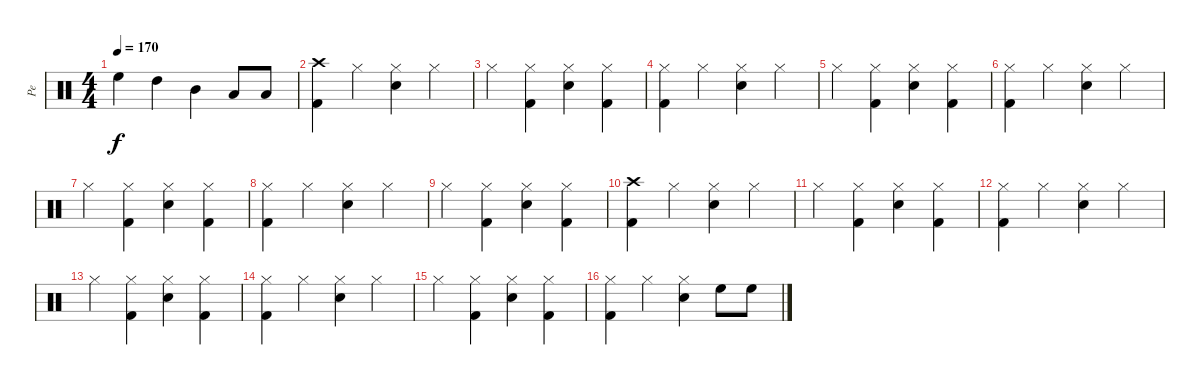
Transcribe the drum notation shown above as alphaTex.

\track ("Pe" "Pe") {instrument percussion}
\staff {score}
\articulation defaults
\ts (4 4)
\tempo 170
\clef neutral
\ks c "High Floor Tom (hit)".4{dy f} "High Tom (hit)".4 "Mid Tom (hit)".4 "Low Tom (hit)".8 "Low Tom (hit)".8
|
("Kick (hit) 2" "Crash high (hit)").4 "Hi-Hat (closed)".4 ("Snare (hit) 2" "Hi-Hat (closed)").4 "Hi-Hat (closed)".4 |
"Hi-Hat (closed)".4 ("Kick (hit) 2" "Hi-Hat (closed)").4 ("Snare (hit) 2" "Hi-Hat (closed)").4 ("Kick (hit) 2" "Hi-Hat (closed)").4 |
("Kick (hit) 2" "Hi-Hat (closed)").4 "Hi-Hat (closed)".4 ("Snare (hit) 2" "Hi-Hat (closed)").4 "Hi-Hat (closed)".4 |
"Hi-Hat (closed)".4 ("Kick (hit) 2" "Hi-Hat (closed)").4 ("Snare (hit) 2" "Hi-Hat (closed)").4 ("Kick (hit) 2" "Hi-Hat (closed)").4 |
("Kick (hit) 2" "Hi-Hat (closed)").4 "Hi-Hat (closed)".4 ("Snare (hit) 2" "Hi-Hat (closed)").4 "Hi-Hat (closed)".4 |
"Hi-Hat (closed)".4 ("Kick (hit) 2" "Hi-Hat (closed)").4 ("Snare (hit) 2" "Hi-Hat (closed)").4 ("Kick (hit) 2" "Hi-Hat (closed)").4 |
("Kick (hit) 2" "Hi-Hat (closed)").4 "Hi-Hat (closed)".4 ("Snare (hit) 2" "Hi-Hat (closed)").4 "Hi-Hat (closed)".4 |
"Hi-Hat (closed)".4 ("Kick (hit) 2" "Hi-Hat (closed)").4 ("Snare (hit) 2" "Hi-Hat (closed)").4 ("Kick (hit) 2" "Hi-Hat (closed)").4 |
("Kick (hit) 2" "Crash high (hit)").4 "Hi-Hat (closed)".4 ("Snare (hit) 2" "Hi-Hat (closed)").4 "Hi-Hat (closed)".4 |
"Hi-Hat (closed)".4 ("Kick (hit) 2" "Hi-Hat (closed)").4 ("Snare (hit) 2" "Hi-Hat (closed)").4 ("Kick (hit) 2" "Hi-Hat (closed)").4 |
("Kick (hit) 2" "Hi-Hat (closed)").4 "Hi-Hat (closed)".4 ("Snare (hit) 2" "Hi-Hat (closed)").4 "Hi-Hat (closed)".4 |
"Hi-Hat (closed)".4 ("Kick (hit) 2" "Hi-Hat (closed)").4 ("Snare (hit) 2" "Hi-Hat (closed)").4 ("Kick (hit) 2" "Hi-Hat (closed)").4 |
("Kick (hit) 2" "Hi-Hat (closed)").4 "Hi-Hat (closed)".4 ("Snare (hit) 2" "Hi-Hat (closed)").4 "Hi-Hat (closed)".4 |
"Hi-Hat (closed)".4 ("Kick (hit) 2" "Hi-Hat (closed)").4 ("Snare (hit) 2" "Hi-Hat (closed)").4 ("Kick (hit) 2" "Hi-Hat (closed)").4 |
("Kick (hit) 2" "Hi-Hat (closed)").4 "Hi-Hat (closed)".4 ("Snare (hit) 2" "Hi-Hat (closed)").4 "High Floor Tom (hit)".8 "High Floor Tom (hit)".8
